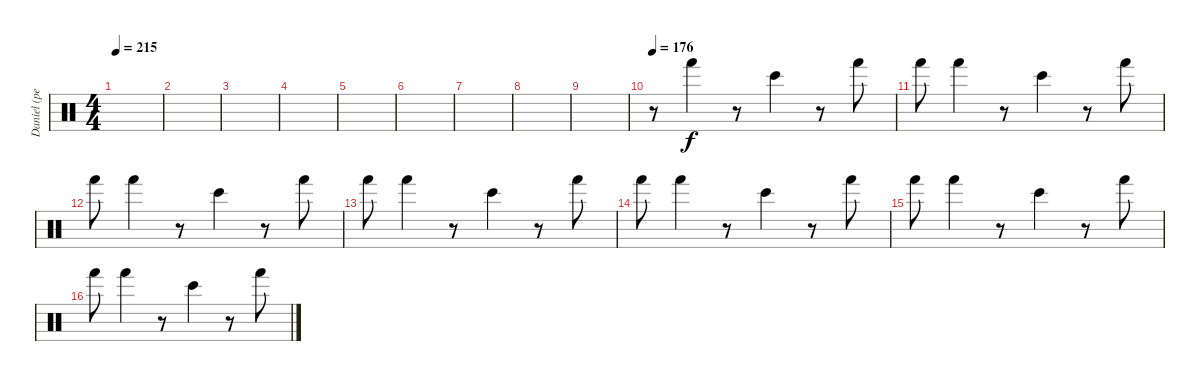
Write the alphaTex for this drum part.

\track ("Daniel (percussion)" "Daniel (pe") {instrument percussion}
\staff {score}
\articulation defaults
\ts (4 4)
\tempo 215
\clef neutral
\ks c
|
|
|
|
|
|
|
|
|
\tempo 176
r.8 "Hand (hit)".4 r.8 "Bongo High (hit)".4 r.8 "Hand (hit)".8 |
"Hand (hit)".8 "Hand (hit)".4 r.8 "Bongo High (hit)".4 r.8 "Hand (hit)".8 |
"Hand (hit)".8 "Hand (hit)".4 r.8 "Bongo High (hit)".4 r.8 "Hand (hit)".8 |
"Hand (hit)".8 "Hand (hit)".4 r.8 "Bongo High (hit)".4 r.8 "Hand (hit)".8 |
"Hand (hit)".8 "Hand (hit)".4 r.8 "Bongo High (hit)".4 r.8 "Hand (hit)".8 |
"Hand (hit)".8 "Hand (hit)".4 r.8 "Bongo High (hit)".4 r.8 "Hand (hit)".8 |
"Hand (hit)".8 "Hand (hit)".4 r.8 "Bongo High (hit)".4 r.8 "Hand (hit)".8
